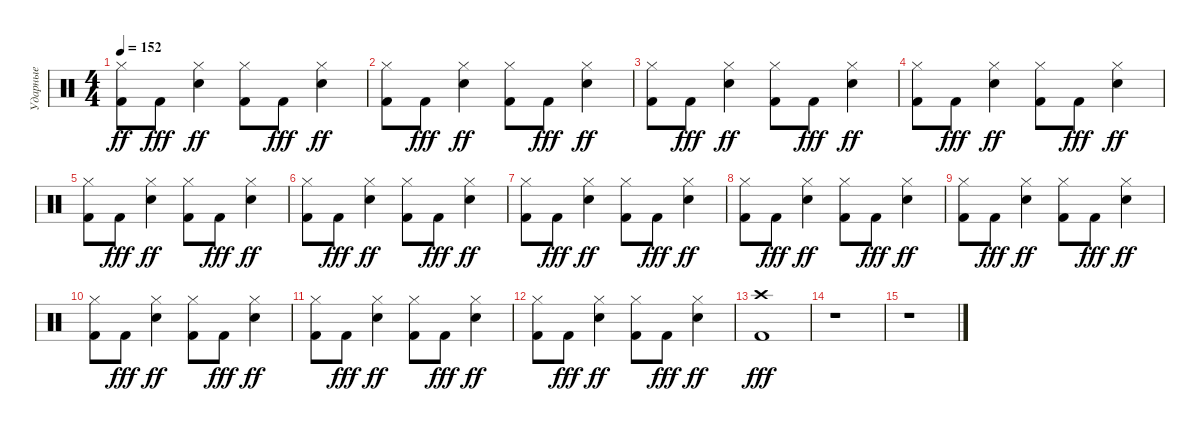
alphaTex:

\track ("Ударные" "Ударные") {instrument percussion}
\staff
\articulation defaults
\ts (4 4)
\tempo 152
\clef neutral
\ks c
("Kick (hit) 2" "Hi-Hat (closed)").8{dy ff} "Kick (hit) 2".8{dy fff} ("Snare (hit) 2" "Hi-Hat (closed)").4{dy ff} ("Kick (hit) 2" "Hi-Hat (closed)").8 "Kick (hit) 2".8{dy fff} ("Snare (hit) 2" "Hi-Hat (closed)").4{dy ff} |
("Kick (hit) 2" "Hi-Hat (closed)").8 "Kick (hit) 2".8{dy fff} ("Snare (hit) 2" "Hi-Hat (closed)").4{dy ff} ("Kick (hit) 2" "Hi-Hat (closed)").8 "Kick (hit) 2".8{dy fff} ("Snare (hit) 2" "Hi-Hat (closed)").4{dy ff} |
("Kick (hit) 2" "Hi-Hat (closed)").8 "Kick (hit) 2".8{dy fff} ("Snare (hit) 2" "Hi-Hat (closed)").4{dy ff} ("Kick (hit) 2" "Hi-Hat (closed)").8 "Kick (hit) 2".8{dy fff} ("Snare (hit) 2" "Hi-Hat (closed)").4{dy ff} |
("Kick (hit) 2" "Hi-Hat (closed)").8 "Kick (hit) 2".8{dy fff} ("Snare (hit) 2" "Hi-Hat (closed)").4{dy ff} ("Kick (hit) 2" "Hi-Hat (closed)").8 "Kick (hit) 2".8{dy fff} ("Snare (hit) 2" "Hi-Hat (closed)").4{dy ff} |
("Kick (hit) 2" "Hi-Hat (closed)").8 "Kick (hit) 2".8{dy fff} ("Snare (hit) 2" "Hi-Hat (closed)").4{dy ff} ("Kick (hit) 2" "Hi-Hat (closed)").8 "Kick (hit) 2".8{dy fff} ("Snare (hit) 2" "Hi-Hat (closed)").4{dy ff} |
("Kick (hit) 2" "Hi-Hat (closed)").8 "Kick (hit) 2".8{dy fff} ("Snare (hit) 2" "Hi-Hat (closed)").4{dy ff} ("Kick (hit) 2" "Hi-Hat (closed)").8 "Kick (hit) 2".8{dy fff} ("Snare (hit) 2" "Hi-Hat (closed)").4{dy ff} |
("Kick (hit) 2" "Hi-Hat (closed)").8 "Kick (hit) 2".8{dy fff} ("Snare (hit) 2" "Hi-Hat (closed)").4{dy ff} ("Kick (hit) 2" "Hi-Hat (closed)").8 "Kick (hit) 2".8{dy fff} ("Snare (hit) 2" "Hi-Hat (closed)").4{dy ff} |
("Kick (hit) 2" "Hi-Hat (closed)").8 "Kick (hit) 2".8{dy fff} ("Snare (hit) 2" "Hi-Hat (closed)").4{dy ff} ("Kick (hit) 2" "Hi-Hat (closed)").8 "Kick (hit) 2".8{dy fff} ("Snare (hit) 2" "Hi-Hat (closed)").4{dy ff} |
("Kick (hit) 2" "Hi-Hat (closed)").8 "Kick (hit) 2".8{dy fff} ("Snare (hit) 2" "Hi-Hat (closed)").4{dy ff} ("Kick (hit) 2" "Hi-Hat (closed)").8 "Kick (hit) 2".8{dy fff} ("Snare (hit) 2" "Hi-Hat (closed)").4{dy ff} |
("Kick (hit) 2" "Hi-Hat (closed)").8 "Kick (hit) 2".8{dy fff} ("Snare (hit) 2" "Hi-Hat (closed)").4{dy ff} ("Kick (hit) 2" "Hi-Hat (closed)").8 "Kick (hit) 2".8{dy fff} ("Snare (hit) 2" "Hi-Hat (closed)").4{dy ff} |
("Kick (hit) 2" "Hi-Hat (closed)").8 "Kick (hit) 2".8{dy fff} ("Snare (hit) 2" "Hi-Hat (closed)").4{dy ff} ("Kick (hit) 2" "Hi-Hat (closed)").8 "Kick (hit) 2".8{dy fff} ("Snare (hit) 2" "Hi-Hat (closed)").4{dy ff} |
("Kick (hit) 2" "Hi-Hat (closed)").8 "Kick (hit) 2".8{dy fff} ("Snare (hit) 2" "Hi-Hat (closed)").4{dy ff} ("Kick (hit) 2" "Hi-Hat (closed)").8 "Kick (hit) 2".8{dy fff} ("Snare (hit) 2" "Hi-Hat (closed)").4{dy ff} |
("Kick (hit) 2" "Crash high (hit)").1{dy fff} |
r.1 |
r.1
